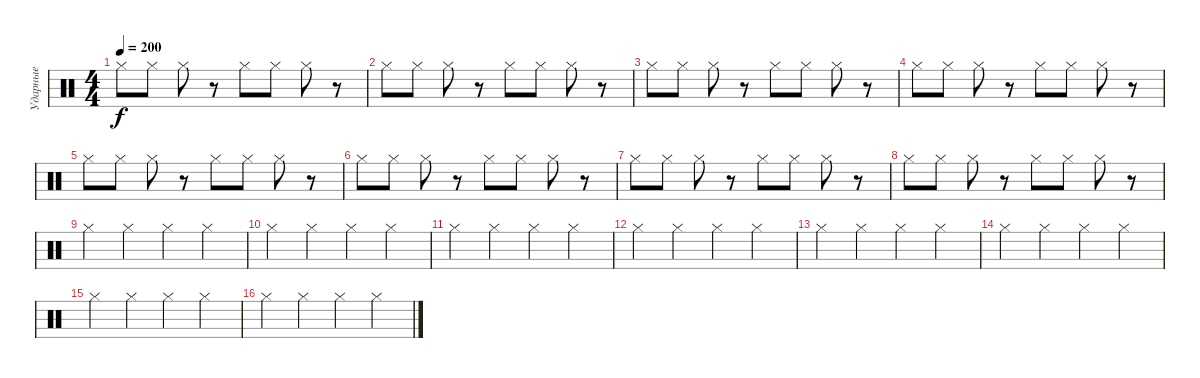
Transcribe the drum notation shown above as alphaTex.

\track ("Ударные" "Ударные") {instrument percussion}
\staff {score}
\articulation defaults
\ts (4 4)
\tempo 200
\clef neutral
\ks c "Hi-Hat (closed)".8{dy f} "Hi-Hat (closed)".8 "Hi-Hat (closed)".8
r.8 "Hi-Hat (closed)".8 "Hi-Hat (closed)".8 "Hi-Hat (closed)".8 r.8 |
"Hi-Hat (closed)".8 "Hi-Hat (closed)".8 "Hi-Hat (closed)".8 r.8 "Hi-Hat (closed)".8 "Hi-Hat (closed)".8 "Hi-Hat (closed)".8 r.8 |
"Hi-Hat (closed)".8 "Hi-Hat (closed)".8 "Hi-Hat (closed)".8 r.8 "Hi-Hat (closed)".8 "Hi-Hat (closed)".8 "Hi-Hat (closed)".8 r.8 |
"Hi-Hat (closed)".8 "Hi-Hat (closed)".8 "Hi-Hat (closed)".8 r.8 "Hi-Hat (closed)".8 "Hi-Hat (closed)".8 "Hi-Hat (closed)".8 r.8 |
"Hi-Hat (closed)".8 "Hi-Hat (closed)".8 "Hi-Hat (closed)".8 r.8 "Hi-Hat (closed)".8 "Hi-Hat (closed)".8 "Hi-Hat (closed)".8 r.8 |
"Hi-Hat (closed)".8 "Hi-Hat (closed)".8 "Hi-Hat (closed)".8 r.8 "Hi-Hat (closed)".8 "Hi-Hat (closed)".8 "Hi-Hat (closed)".8 r.8 |
"Hi-Hat (closed)".8 "Hi-Hat (closed)".8 "Hi-Hat (closed)".8 r.8 "Hi-Hat (closed)".8 "Hi-Hat (closed)".8 "Hi-Hat (closed)".8 r.8 |
"Hi-Hat (closed)".8 "Hi-Hat (closed)".8 "Hi-Hat (closed)".8 r.8 "Hi-Hat (closed)".8 "Hi-Hat (closed)".8 "Hi-Hat (closed)".8 r.8 |
"Hi-Hat (closed)".4 "Hi-Hat (closed)".4 "Hi-Hat (closed)".4 "Hi-Hat (closed)".4 |
"Hi-Hat (closed)".4 "Hi-Hat (closed)".4 "Hi-Hat (closed)".4 "Hi-Hat (closed)".4 |
"Hi-Hat (closed)".4 "Hi-Hat (closed)".4 "Hi-Hat (closed)".4 "Hi-Hat (closed)".4 |
"Hi-Hat (closed)".4 "Hi-Hat (closed)".4 "Hi-Hat (closed)".4 "Hi-Hat (closed)".4 |
"Hi-Hat (closed)".4 "Hi-Hat (closed)".4 "Hi-Hat (closed)".4 "Hi-Hat (closed)".4 |
"Hi-Hat (closed)".4 "Hi-Hat (closed)".4 "Hi-Hat (closed)".4 "Hi-Hat (closed)".4 |
"Hi-Hat (closed)".4 "Hi-Hat (closed)".4 "Hi-Hat (closed)".4 "Hi-Hat (closed)".4 |
"Hi-Hat (closed)".4 "Hi-Hat (closed)".4 "Hi-Hat (closed)".4 "Hi-Hat (closed)".4
